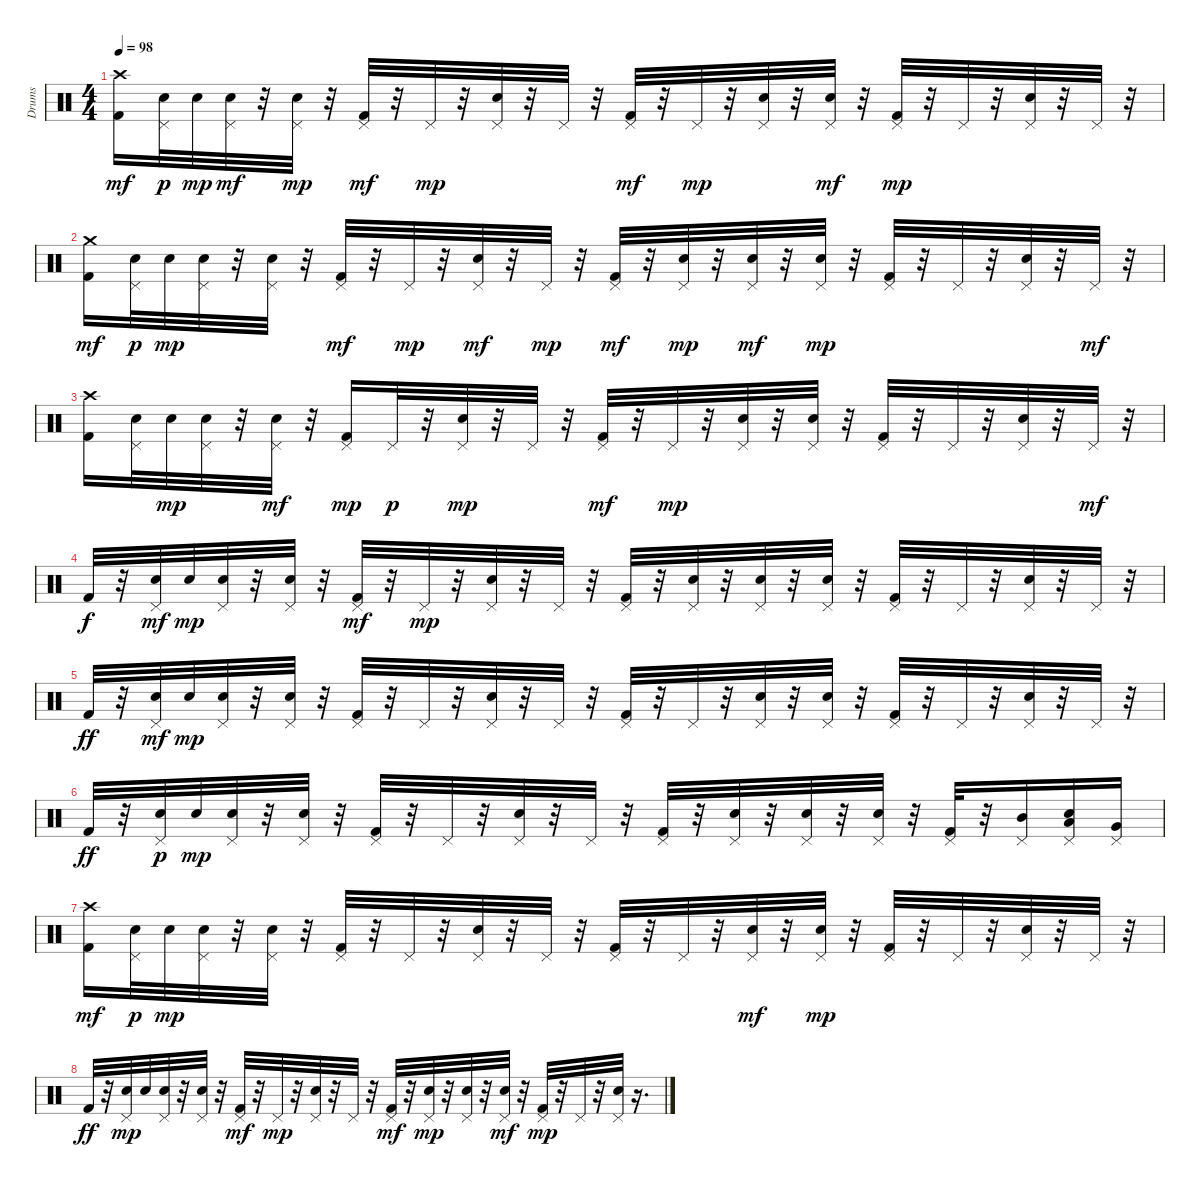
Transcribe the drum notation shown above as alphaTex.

\track ("Drums" "Drums") {instrument percussion}
\staff {score}
\articulation defaults
\ts (4 4)
\tempo 98
\clef neutral
\ks c
("Kick (hit) 2" "Crash high (hit)").16{dy mf} ("Electric Snare (hit)" "Pedal Hi-Hat (hit)").32{dy p} "Electric Snare (hit)".32{dy mp} ("Electric Snare (hit)" "Pedal Hi-Hat (hit)").32{dy mf} r.32 ("Electric Snare (hit)" "Pedal Hi-Hat (hit)").32{dy mp} r.32 ("Kick (hit) 2" "Pedal Hi-Hat (hit)").32{dy mf} r.32 "Pedal Hi-Hat (hit)".32{dy mp} r.32 ("Electric Snare (hit)" "Pedal Hi-Hat (hit)").32 r.32 "Pedal Hi-Hat (hit)".32 r.32 ("Kick (hit) 2" "Pedal Hi-Hat (hit)").32{dy mf} r.32 "Pedal Hi-Hat (hit)".32{dy mp} r.32 ("Electric Snare (hit)" "Pedal Hi-Hat (hit)").32 r.32 ("Electric Snare (hit)" "Pedal Hi-Hat (hit)").32{dy mf} r.32 ("Kick (hit) 2" "Pedal Hi-Hat (hit)").32{dy mp} r.32 "Pedal Hi-Hat (hit)".32 r.32 ("Electric Snare (hit)" "Pedal Hi-Hat (hit)").32 r.32 "Pedal Hi-Hat (hit)".32 r.32 |
("Kick (hit) 2" "Crash medium (hit)").16{dy mf} ("Electric Snare (hit)" "Pedal Hi-Hat (hit)").32{dy p} "Electric Snare (hit)".32{dy mp} ("Electric Snare (hit)" "Pedal Hi-Hat (hit)").32 r.32 ("Electric Snare (hit)" "Pedal Hi-Hat (hit)").32 r.32 ("Kick (hit) 2" "Pedal Hi-Hat (hit)").32{dy mf} r.32 "Pedal Hi-Hat (hit)".32{dy mp} r.32 ("Electric Snare (hit)" "Pedal Hi-Hat (hit)").32{dy mf} r.32 "Pedal Hi-Hat (hit)".32{dy mp} r.32 ("Kick (hit) 2" "Pedal Hi-Hat (hit)").32{dy mf} r.32 ("Electric Snare (hit)" "Pedal Hi-Hat (hit)").32{dy mp} r.32 ("Electric Snare (hit)" "Pedal Hi-Hat (hit)").32{dy mf} r.32 ("Electric Snare (hit)" "Pedal Hi-Hat (hit)").32{dy mp} r.32 ("Kick (hit) 2" "Pedal Hi-Hat (hit)").32 r.32 "Pedal Hi-Hat (hit)".32 r.32 ("Electric Snare (hit)" "Pedal Hi-Hat (hit)").32 r.32 "Pedal Hi-Hat (hit)".32{dy mf} r.32 |
("Kick (hit) 2" "Crash high (hit)").16 ("Electric Snare (hit)" "Pedal Hi-Hat (hit)").32 "Electric Snare (hit)".32{dy mp} ("Electric Snare (hit)" "Pedal Hi-Hat (hit)").32 r.32 ("Electric Snare (hit)" "Pedal Hi-Hat (hit)").32{dy mf} r.32 ("Kick (hit) 2" "Pedal Hi-Hat (hit)").16{dy mp} "Pedal Hi-Hat (hit)".32{dy p} r.32 ("Electric Snare (hit)" "Pedal Hi-Hat (hit)").32{dy mp} r.32 "Pedal Hi-Hat (hit)".32 r.32 ("Kick (hit) 2" "Pedal Hi-Hat (hit)").32{dy mf} r.32 "Pedal Hi-Hat (hit)".32{dy mp} r.32 ("Electric Snare (hit)" "Pedal Hi-Hat (hit)").32 r.32 ("Electric Snare (hit)" "Pedal Hi-Hat (hit)").32 r.32 ("Kick (hit) 2" "Pedal Hi-Hat (hit)").32 r.32 "Pedal Hi-Hat (hit)".32 r.32 ("Electric Snare (hit)" "Pedal Hi-Hat (hit)").32 r.32 "Pedal Hi-Hat (hit)".32{dy mf} r.32 |
"Kick (hit) 2".32{dy f} r.32 ("Electric Snare (hit)" "Pedal Hi-Hat (hit)").32{dy mf} "Electric Snare (hit)".32{dy mp} ("Electric Snare (hit)" "Pedal Hi-Hat (hit)").32 r.32 ("Electric Snare (hit)" "Pedal Hi-Hat (hit)").32 r.32 ("Kick (hit) 2" "Pedal Hi-Hat (hit)").32{dy mf} r.32 "Pedal Hi-Hat (hit)".32{dy mp} r.32 ("Electric Snare (hit)" "Pedal Hi-Hat (hit)").32 r.32 "Pedal Hi-Hat (hit)".32 r.32 ("Kick (hit) 2" "Pedal Hi-Hat (hit)").32 r.32 ("Electric Snare (hit)" "Pedal Hi-Hat (hit)").32{volume 12} r.32 ("Electric Snare (hit)" "Pedal Hi-Hat (hit)").32 r.32 ("Electric Snare (hit)" "Pedal Hi-Hat (hit)").32 r.32 ("Kick (hit) 2" "Pedal Hi-Hat (hit)").32 r.32 "Pedal Hi-Hat (hit)".32 r.32 ("Electric Snare (hit)" "Pedal Hi-Hat (hit)").32 r.32 "Pedal Hi-Hat (hit)".32 r.32 |
"Kick (hit) 2".32{dy ff} r.32 ("Electric Snare (hit)" "Pedal Hi-Hat (hit)").32{dy mf} "Electric Snare (hit)".32{dy mp} ("Electric Snare (hit)" "Pedal Hi-Hat (hit)").32 r.32 ("Electric Snare (hit)" "Pedal Hi-Hat (hit)").32 r.32 ("Kick (hit) 2" "Pedal Hi-Hat (hit)").32 r.32 "Pedal Hi-Hat (hit)".32 r.32 ("Electric Snare (hit)" "Pedal Hi-Hat (hit)").32 r.32 "Pedal Hi-Hat (hit)".32 r.32 ("Kick (hit) 2" "Pedal Hi-Hat (hit)").32 r.32 "Pedal Hi-Hat (hit)".32 r.32 ("Electric Snare (hit)" "Pedal Hi-Hat (hit)").32 r.32 ("Electric Snare (hit)" "Pedal Hi-Hat (hit)").32 r.32 ("Kick (hit) 2" "Pedal Hi-Hat (hit)").32 r.32 "Pedal Hi-Hat (hit)".32 r.32 ("Electric Snare (hit)" "Pedal Hi-Hat (hit)").32 r.32 "Pedal Hi-Hat (hit)".32 r.32 |
"Kick (hit) 2".32{dy ff} r.32 ("Electric Snare (hit)" "Pedal Hi-Hat (hit)").32{dy p} "Electric Snare (hit)".32{dy mp} ("Electric Snare (hit)" "Pedal Hi-Hat (hit)").32 r.32 ("Electric Snare (hit)" "Pedal Hi-Hat (hit)").32 r.32 ("Kick (hit) 2" "Pedal Hi-Hat (hit)").32 r.32 "Pedal Hi-Hat (hit)".32 r.32 ("Electric Snare (hit)" "Pedal Hi-Hat (hit)").32 r.32 "Pedal Hi-Hat (hit)".32 r.32 ("Kick (hit) 2" "Pedal Hi-Hat (hit)").32 r.32 ("Electric Snare (hit)" "Pedal Hi-Hat (hit)").32 r.32 ("Electric Snare (hit)" "Pedal Hi-Hat (hit)").32 r.32 ("Electric Snare (hit)" "Pedal Hi-Hat (hit)").32 r.32 ("Kick (hit) 2" "Pedal Hi-Hat (hit)").32 r.32 ("Pedal Hi-Hat (hit)" "Mid Tom (hit)").16 ("Electric Snare (hit)" "Pedal Hi-Hat (hit)" "Low Tom (hit)").16 ("Pedal Hi-Hat (hit)" "Very Low Tom (hit)").16 |
("Kick (hit) 2" "Crash high (hit)").16{dy mf} ("Electric Snare (hit)" "Pedal Hi-Hat (hit)").32{dy p} "Electric Snare (hit)".32{dy mp} ("Electric Snare (hit)" "Pedal Hi-Hat (hit)").32 r.32 ("Electric Snare (hit)" "Pedal Hi-Hat (hit)").32 r.32 ("Kick (hit) 2" "Pedal Hi-Hat (hit)").32 r.32 "Pedal Hi-Hat (hit)".32 r.32 ("Electric Snare (hit)" "Pedal Hi-Hat (hit)").32 r.32 "Pedal Hi-Hat (hit)".32 r.32 ("Kick (hit) 2" "Pedal Hi-Hat (hit)").32 r.32 "Pedal Hi-Hat (hit)".32 r.32 ("Electric Snare (hit)" "Pedal Hi-Hat (hit)").32{dy mf} r.32 ("Electric Snare (hit)" "Pedal Hi-Hat (hit)").32{dy mp} r.32 ("Kick (hit) 2" "Pedal Hi-Hat (hit)").32 r.32 "Pedal Hi-Hat (hit)".32 r.32 ("Electric Snare (hit)" "Pedal Hi-Hat (hit)").32 r.32 "Pedal Hi-Hat (hit)".32 r.32 |
"Kick (hit) 2".32{dy ff} r.32 ("Electric Snare (hit)" "Pedal Hi-Hat (hit)").32{dy mp} "Electric Snare (hit)".32 ("Electric Snare (hit)" "Pedal Hi-Hat (hit)").32 r.32 ("Electric Snare (hit)" "Pedal Hi-Hat (hit)").32 r.32 ("Kick (hit) 2" "Pedal Hi-Hat (hit)").32{dy mf} r.32 "Pedal Hi-Hat (hit)".32{dy mp} r.32 ("Electric Snare (hit)" "Pedal Hi-Hat (hit)").32 r.32 "Pedal Hi-Hat (hit)".32 r.32 ("Kick (hit) 2" "Pedal Hi-Hat (hit)").32{dy mf} r.32 ("Electric Snare (hit)" "Pedal Hi-Hat (hit)").32{dy mp} r.32 ("Electric Snare (hit)" "Pedal Hi-Hat (hit)").32 r.32 ("Electric Snare (hit)" "Pedal Hi-Hat (hit)").32{dy mf} r.32 ("Kick (hit) 2" "Pedal Hi-Hat (hit)").32{dy mp} r.32 "Pedal Hi-Hat (hit)".32 r.32 ("Electric Snare (hit)" "Pedal Hi-Hat (hit)").32 r.16{d}
